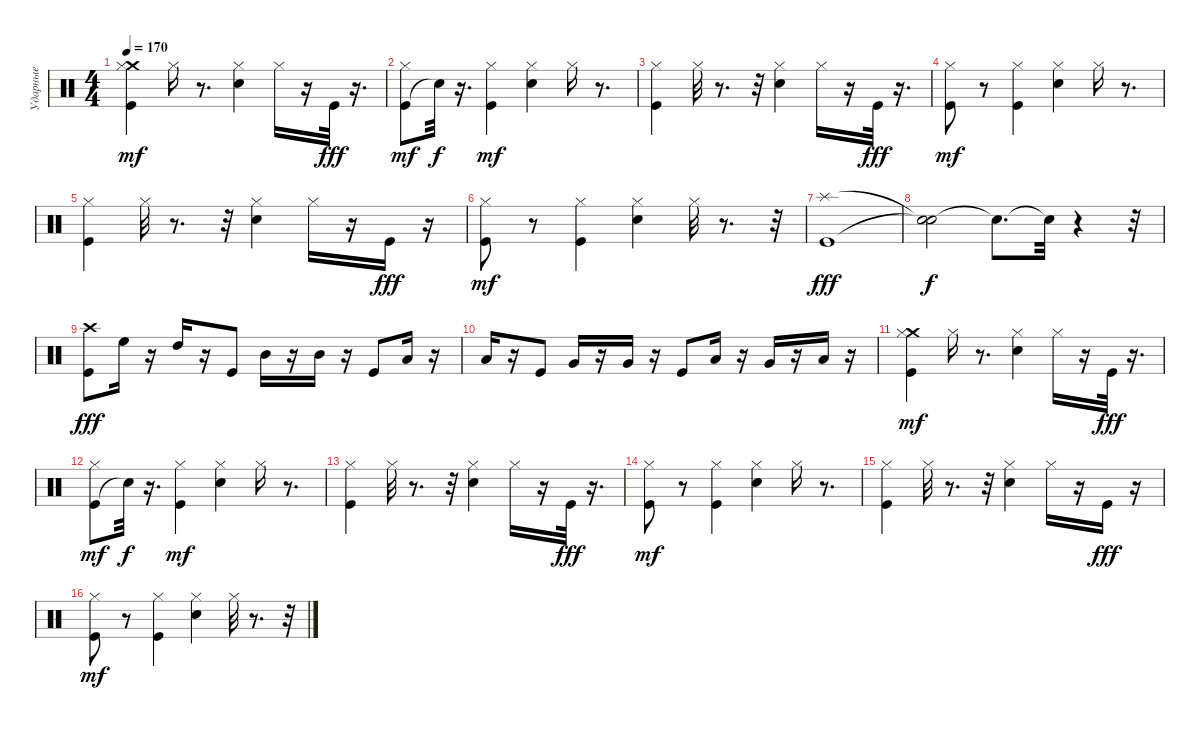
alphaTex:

\track ("Ударные" "Ударные") {instrument percussion}
\staff {score}
\articulation defaults
\ts (4 4)
\tempo 170
\clef neutral
\ks c
("Kick (hit)" "Crash medium (hit)" "Hi-Hat (closed)").4{dy mf} "Hi-Hat (closed)".16 r.8{d} ("Snare (hit) 2" "Hi-Hat (closed)").4 "Hi-Hat (closed)".16 r.16 "Kick (hit)".32{dy fff} r.16{d} |
("Kick (hit)" "Hi-Hat (closed)").8{dy mf} "Snare (hit)"{t}.32{dy f} r.16{d} ("Kick (hit)" "Hi-Hat (closed)").4{dy mf} ("Snare (hit) 2" "Hi-Hat (closed)").4 "Hi-Hat (closed)".16 r.8{d} |
("Kick (hit)" "Hi-Hat (closed)").4 "Hi-Hat (closed)".32 r.8{d} r.32 ("Snare (hit) 2" "Hi-Hat (closed)").4 "Hi-Hat (closed)".16 r.16 "Kick (hit)".32{dy fff} r.16{d} |
("Kick (hit)" "Hi-Hat (closed)").8{dy mf} r.8 ("Kick (hit)" "Hi-Hat (closed)").4 ("Snare (hit) 2" "Hi-Hat (closed)").4 "Hi-Hat (closed)".16 r.8{d} |
("Kick (hit)" "Hi-Hat (closed)").4 "Hi-Hat (closed)".32 r.8{d} r.32 ("Snare (hit) 2" "Hi-Hat (closed)").4 "Hi-Hat (closed)".16 r.16 "Kick (hit)".16{dy fff} r.16 |
("Kick (hit)" "Hi-Hat (closed)").8{dy mf} r.8 ("Kick (hit)" "Hi-Hat (closed)").4 ("Snare (hit) 2" "Hi-Hat (closed)").4 "Hi-Hat (closed)".32 r.8{d} r.32 |
("Kick (hit)" "Splash (hit)").1{dy fff} |
("Snare (hit)"{t} "Snare (hit)"{t}).2{dy f} "Snare (hit)"{t}.8{d} "Snare (hit)"{t}.32 r.4 r.32 |
("Kick (hit)" "Crash high (hit)").8{dy fff} "High Floor Tom (hit)".16 r.16 "High Tom (hit)".16 r.16 "Kick (hit)".8 "Mid Tom (hit)".16 r.16 "Mid Tom (hit)".16 r.16 "Kick (hit)".8 "Low Tom (hit)".16 r.16 |
"Low Tom (hit)".16 r.16 "Kick (hit)".8 "Very Low Tom (hit)".16 r.16 "Very Low Tom (hit)".16 r.16 "Kick (hit)".8 "Low Tom (hit)".16 r.16 "Very Low Tom (hit)".16 r.16 "Low Floor Tom (hit)".16 r.16 |
("Kick (hit)" "Crash medium (hit)" "Hi-Hat (closed)").4{dy mf} "Hi-Hat (closed)".16 r.8{d} ("Snare (hit) 2" "Hi-Hat (closed)").4 "Hi-Hat (closed)".16 r.16 "Kick (hit)".32{dy fff} r.16{d} |
("Kick (hit)" "Hi-Hat (closed)").8{dy mf} "Snare (hit)"{t}.32{dy f} r.16{d} ("Kick (hit)" "Hi-Hat (closed)").4{dy mf} ("Snare (hit) 2" "Hi-Hat (closed)").4 "Hi-Hat (closed)".16 r.8{d} |
("Kick (hit)" "Hi-Hat (closed)").4 "Hi-Hat (closed)".32 r.8{d} r.32 ("Snare (hit) 2" "Hi-Hat (closed)").4 "Hi-Hat (closed)".16 r.16 "Kick (hit)".32{dy fff} r.16{d} |
("Kick (hit)" "Hi-Hat (closed)").8{dy mf} r.8 ("Kick (hit)" "Hi-Hat (closed)").4 ("Snare (hit) 2" "Hi-Hat (closed)").4 "Hi-Hat (closed)".16 r.8{d} |
("Kick (hit)" "Hi-Hat (closed)").4 "Hi-Hat (closed)".32 r.8{d} r.32 ("Snare (hit) 2" "Hi-Hat (closed)").4 "Hi-Hat (closed)".16 r.16 "Kick (hit)".16{dy fff} r.16 |
("Kick (hit)" "Hi-Hat (closed)").8{dy mf} r.8 ("Kick (hit)" "Hi-Hat (closed)").4 ("Snare (hit) 2" "Hi-Hat (closed)").4 "Hi-Hat (closed)".32 r.8{d} r.32
